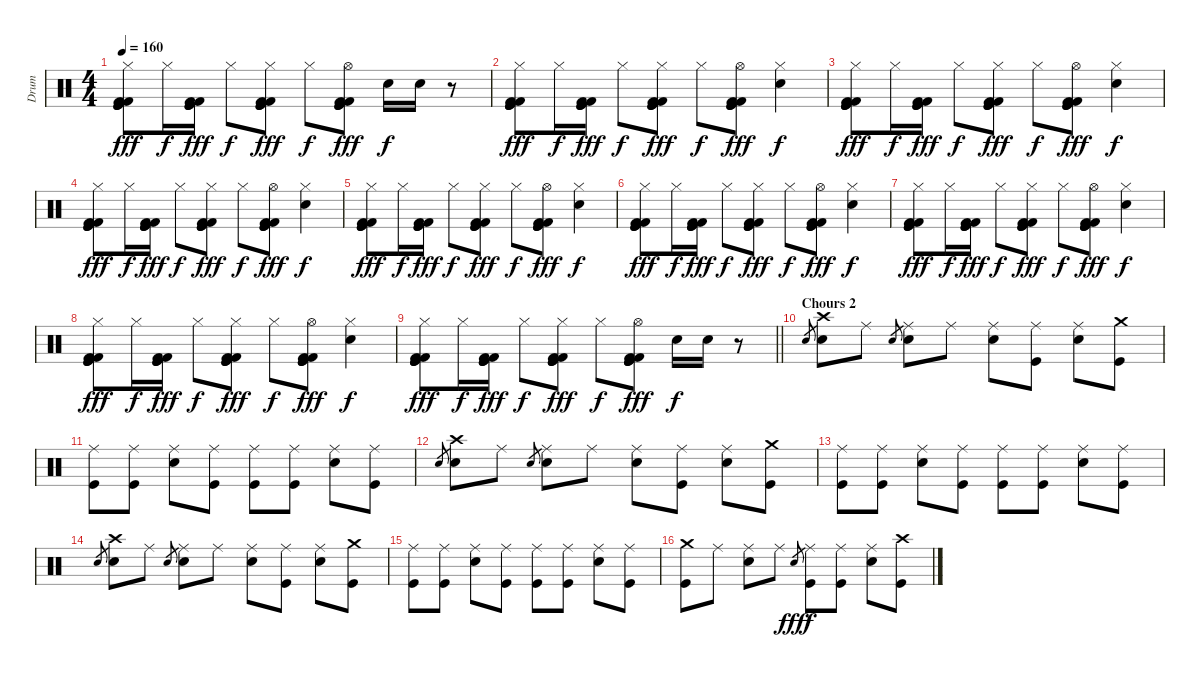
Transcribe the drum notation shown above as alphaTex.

\track ("Drum" "Drum") {instrument percussion}
\staff {score}
\articulation defaults
\ts (4 4)
\tempo 160
\clef neutral
\ks c
("Hi-Hat (closed)" "Kick (hit)" "Kick (hit)" "Kick (hit)" "Kick (hit) 2" "Kick (hit) 2").8{dy fff} "Hi-Hat (closed)".16{dy f} ("Kick (hit)" "Kick (hit)" "Kick (hit)" "Kick (hit) 2" "Kick (hit) 2").16{dy fff} "Hi-Hat (closed)".8{dy f} ("Hi-Hat (closed)" "Kick (hit)" "Kick (hit)" "Kick (hit)" "Kick (hit) 2" "Kick (hit) 2").8{dy fff} "Hi-Hat (closed)".8{dy f} ("Hi-Hat (open)" "Kick (hit)" "Kick (hit)" "Kick (hit)" "Kick (hit) 2" "Kick (hit) 2").8{dy fff} "Electric Snare (hit)".16{dy f} "Electric Snare (hit)".16 r.8 |
("Hi-Hat (closed)" "Kick (hit)" "Kick (hit)" "Kick (hit)" "Kick (hit) 2" "Kick (hit) 2").8{dy fff} "Hi-Hat (closed)".16{dy f} ("Kick (hit)" "Kick (hit)" "Kick (hit)" "Kick (hit) 2" "Kick (hit) 2").16{dy fff} "Hi-Hat (closed)".8{dy f} ("Hi-Hat (closed)" "Kick (hit)" "Kick (hit)" "Kick (hit)" "Kick (hit) 2" "Kick (hit) 2").8{dy fff} "Hi-Hat (closed)".8{dy f} ("Hi-Hat (open)" "Kick (hit)" "Kick (hit)" "Kick (hit)" "Kick (hit) 2" "Kick (hit) 2").8{dy fff} ("Hi-Hat (closed)" "Electric Snare (hit)").4{dy f} |
("Hi-Hat (closed)" "Kick (hit)" "Kick (hit)" "Kick (hit)" "Kick (hit) 2" "Kick (hit) 2").8{dy fff} "Hi-Hat (closed)".16{dy f} ("Kick (hit)" "Kick (hit)" "Kick (hit)" "Kick (hit) 2" "Kick (hit) 2").16{dy fff} "Hi-Hat (closed)".8{dy f} ("Hi-Hat (closed)" "Kick (hit)" "Kick (hit)" "Kick (hit)" "Kick (hit) 2" "Kick (hit) 2").8{dy fff} "Hi-Hat (closed)".8{dy f} ("Hi-Hat (open)" "Kick (hit)" "Kick (hit)" "Kick (hit)" "Kick (hit) 2" "Kick (hit) 2").8{dy fff} ("Hi-Hat (closed)" "Electric Snare (hit)").4{dy f} |
("Hi-Hat (closed)" "Kick (hit)" "Kick (hit)" "Kick (hit)" "Kick (hit) 2" "Kick (hit) 2").8{dy fff} "Hi-Hat (closed)".16{dy f} ("Kick (hit)" "Kick (hit)" "Kick (hit)" "Kick (hit) 2" "Kick (hit) 2").16{dy fff} "Hi-Hat (closed)".8{dy f} ("Hi-Hat (closed)" "Kick (hit)" "Kick (hit)" "Kick (hit)" "Kick (hit) 2" "Kick (hit) 2").8{dy fff} "Hi-Hat (closed)".8{dy f} ("Hi-Hat (open)" "Kick (hit)" "Kick (hit)" "Kick (hit)" "Kick (hit) 2" "Kick (hit) 2").8{dy fff} ("Hi-Hat (closed)" "Electric Snare (hit)").4{dy f} |
("Hi-Hat (closed)" "Kick (hit)" "Kick (hit)" "Kick (hit)" "Kick (hit) 2" "Kick (hit) 2").8{dy fff} "Hi-Hat (closed)".16{dy f} ("Kick (hit)" "Kick (hit)" "Kick (hit)" "Kick (hit) 2" "Kick (hit) 2").16{dy fff} "Hi-Hat (closed)".8{dy f} ("Hi-Hat (closed)" "Kick (hit)" "Kick (hit)" "Kick (hit)" "Kick (hit) 2" "Kick (hit) 2").8{dy fff} "Hi-Hat (closed)".8{dy f} ("Hi-Hat (open)" "Kick (hit)" "Kick (hit)" "Kick (hit)" "Kick (hit) 2" "Kick (hit) 2").8{dy fff} ("Hi-Hat (closed)" "Electric Snare (hit)").4{dy f} |
("Hi-Hat (closed)" "Kick (hit)" "Kick (hit)" "Kick (hit)" "Kick (hit) 2" "Kick (hit) 2").8{dy fff} "Hi-Hat (closed)".16{dy f} ("Kick (hit)" "Kick (hit)" "Kick (hit)" "Kick (hit) 2" "Kick (hit) 2").16{dy fff} "Hi-Hat (closed)".8{dy f} ("Hi-Hat (closed)" "Kick (hit)" "Kick (hit)" "Kick (hit)" "Kick (hit) 2" "Kick (hit) 2").8{dy fff} "Hi-Hat (closed)".8{dy f} ("Hi-Hat (open)" "Kick (hit)" "Kick (hit)" "Kick (hit)" "Kick (hit) 2" "Kick (hit) 2").8{dy fff} ("Hi-Hat (closed)" "Electric Snare (hit)").4{dy f} |
("Hi-Hat (closed)" "Kick (hit)" "Kick (hit)" "Kick (hit)" "Kick (hit) 2" "Kick (hit) 2").8{dy fff} "Hi-Hat (closed)".16{dy f} ("Kick (hit)" "Kick (hit)" "Kick (hit)" "Kick (hit) 2" "Kick (hit) 2").16{dy fff} "Hi-Hat (closed)".8{dy f} ("Hi-Hat (closed)" "Kick (hit)" "Kick (hit)" "Kick (hit)" "Kick (hit) 2" "Kick (hit) 2").8{dy fff} "Hi-Hat (closed)".8{dy f} ("Hi-Hat (open)" "Kick (hit)" "Kick (hit)" "Kick (hit)" "Kick (hit) 2" "Kick (hit) 2").8{dy fff} ("Hi-Hat (closed)" "Electric Snare (hit)").4{dy f} |
("Hi-Hat (closed)" "Kick (hit)" "Kick (hit)" "Kick (hit)" "Kick (hit) 2" "Kick (hit) 2").8{dy fff} "Hi-Hat (closed)".16{dy f} ("Kick (hit)" "Kick (hit)" "Kick (hit)" "Kick (hit) 2" "Kick (hit) 2").16{dy fff} "Hi-Hat (closed)".8{dy f} ("Hi-Hat (closed)" "Kick (hit)" "Kick (hit)" "Kick (hit)" "Kick (hit) 2" "Kick (hit) 2").8{dy fff} "Hi-Hat (closed)".8{dy f} ("Hi-Hat (open)" "Kick (hit)" "Kick (hit)" "Kick (hit)" "Kick (hit) 2" "Kick (hit) 2").8{dy fff} ("Hi-Hat (closed)" "Electric Snare (hit)").4{dy f} |
\barLineRight lightlight
("Hi-Hat (closed)" "Kick (hit)" "Kick (hit)" "Kick (hit)" "Kick (hit) 2" "Kick (hit) 2").8{dy fff} "Hi-Hat (closed)".16{dy f} ("Kick (hit)" "Kick (hit)" "Kick (hit)" "Kick (hit) 2" "Kick (hit) 2").16{dy fff} "Hi-Hat (closed)".8{dy f} ("Hi-Hat (closed)" "Kick (hit)" "Kick (hit)" "Kick (hit)" "Kick (hit) 2" "Kick (hit) 2").8{dy fff} "Hi-Hat (closed)".8{dy f} ("Hi-Hat (open)" "Kick (hit)" "Kick (hit)" "Kick (hit)" "Kick (hit) 2" "Kick (hit) 2").8{dy fff} "Electric Snare (hit)".16{dy f} "Electric Snare (hit)".16 r.8 |
\section ("" "Chours 2")
"Electric Snare (hit)".8{gr} ("Crash high (hit)" "Electric Snare (hit)").8 "Ride (middle)".8 "Electric Snare (hit)".8{gr} ("Ride (middle)" "Electric Snare (hit)").8 "Ride (middle)".8 ("Ride (middle)" "Electric Snare (hit)").8 ("Ride (middle)" "Kick (hit)").8 ("Ride (middle)" "Electric Snare (hit)").8 ("Crash medium (hit)" "Kick (hit)").8 |
("Ride (middle)" "Kick (hit)").8 ("Ride (middle)" "Kick (hit)").8 ("Ride (middle)" "Electric Snare (hit)").8 ("Ride (middle)" "Kick (hit)").8 ("Ride (middle)" "Kick (hit)").8 ("Ride (middle)" "Kick (hit)").8 ("Ride (middle)" "Electric Snare (hit)").8 ("Ride (middle)" "Kick (hit)").8 |
"Electric Snare (hit)".8{gr} ("Crash high (hit)" "Electric Snare (hit)").8 "Ride (middle)".8 "Electric Snare (hit)".8{gr} ("Ride (middle)" "Electric Snare (hit)").8 "Ride (middle)".8 ("Ride (middle)" "Electric Snare (hit)").8 ("Ride (middle)" "Kick (hit)").8 ("Ride (middle)" "Electric Snare (hit)").8 ("Crash medium (hit)" "Kick (hit)").8 |
("Ride (middle)" "Kick (hit)").8 ("Ride (middle)" "Kick (hit)").8 ("Ride (middle)" "Electric Snare (hit)").8 ("Ride (middle)" "Kick (hit)").8 ("Ride (middle)" "Kick (hit)").8 ("Ride (middle)" "Kick (hit)").8 ("Ride (middle)" "Electric Snare (hit)").8 ("Ride (middle)" "Kick (hit)").8 |
"Electric Snare (hit)".8{gr} ("Crash high (hit)" "Electric Snare (hit)").8 "Ride (middle)".8 "Electric Snare (hit)".8{gr} ("Ride (middle)" "Electric Snare (hit)").8 "Ride (middle)".8 ("Ride (middle)" "Electric Snare (hit)").8 ("Ride (middle)" "Kick (hit)").8 ("Ride (middle)" "Electric Snare (hit)").8 ("Crash medium (hit)" "Kick (hit)").8 |
("Ride (middle)" "Kick (hit)").8 ("Ride (middle)" "Kick (hit)").8 ("Ride (middle)" "Electric Snare (hit)").8 ("Ride (middle)" "Kick (hit)").8 ("Ride (middle)" "Kick (hit)").8 ("Ride (middle)" "Kick (hit)").8 ("Ride (middle)" "Electric Snare (hit)").8 ("Ride (middle)" "Kick (hit)").8 |
("Crash medium (hit)" "Kick (hit)").8 "Ride (middle)".8 ("Ride (middle)" "Electric Snare (hit)").8 "Ride (middle)".8 "Electric Snare (hit)".8{gr dy fff} ("Ride (middle)" "Kick (hit)").8{dy f} ("Ride (middle)" "Kick (hit)").8 ("Ride (middle)" "Electric Snare (hit)").8 ("Crash high (hit)" "Kick (hit)").8
